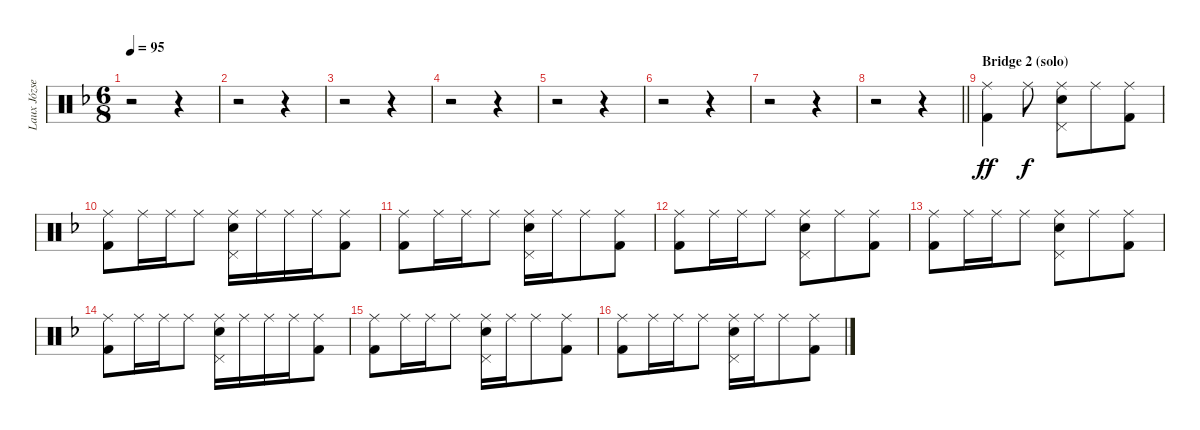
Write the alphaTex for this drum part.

\track ("Laux József" "Laux Józse") {instrument percussion}
\staff {score}
\articulation defaults
\ts (6 8)
\tempo 95
\clef neutral
\ks dminor
r.2{dy f} r.4 |
r.2 r.4 |
r.2 r.4 |
r.2 r.4 |
r.2 r.4 |
r.2 r.4 |
r.2 r.4 |
\barLineRight lightlight
r.2 r.4 |
\section ("" "Bridge 2 (solo)")
("Ride (middle)" "Kick (hit) 2").4{dy ff} "Ride (middle)".8{dy f} ("Pedal Hi-Hat (hit)" "Ride (middle)" "Electric Snare (hit)").8 "Ride (middle)".8 ("Ride (middle)" "Kick (hit) 2").8 |
("Ride (middle)" "Kick (hit) 2").8 "Ride (middle)".16 "Ride (middle)".16 "Ride (middle)".8 ("Pedal Hi-Hat (hit)" "Ride (middle)" "Electric Snare (hit)").16 "Ride (middle)".16 "Ride (middle)".16 "Ride (middle)".16 ("Ride (middle)" "Kick (hit) 2").8 |
("Ride (middle)" "Kick (hit) 2").8 "Ride (middle)".16 "Ride (middle)".16 "Ride (middle)".8 ("Pedal Hi-Hat (hit)" "Ride (middle)" "Electric Snare (hit)").16 "Ride (middle)".16 "Ride (middle)".8 ("Ride (middle)" "Kick (hit) 2").8 |
("Ride (middle)" "Kick (hit) 2").8 "Ride (middle)".16 "Ride (middle)".16 "Ride (middle)".8 ("Pedal Hi-Hat (hit)" "Ride (middle)" "Electric Snare (hit)").8 "Ride (middle)".8 ("Ride (middle)" "Kick (hit) 2").8 |
("Ride (middle)" "Kick (hit) 2").8 "Ride (middle)".16 "Ride (middle)".16 "Ride (middle)".8 ("Pedal Hi-Hat (hit)" "Ride (middle)" "Electric Snare (hit)").8 "Ride (middle)".8 ("Ride (middle)" "Kick (hit) 2").8 |
("Ride (middle)" "Kick (hit) 2").8 "Ride (middle)".16 "Ride (middle)".16 "Ride (middle)".8 ("Pedal Hi-Hat (hit)" "Ride (middle)" "Electric Snare (hit)").16 "Ride (middle)".16 "Ride (middle)".16 "Ride (middle)".16 ("Ride (middle)" "Kick (hit) 2").8 |
("Ride (middle)" "Kick (hit) 2").8 "Ride (middle)".16 "Ride (middle)".16 "Ride (middle)".8 ("Pedal Hi-Hat (hit)" "Ride (middle)" "Electric Snare (hit)").16 "Ride (middle)".16 "Ride (middle)".8 ("Ride (middle)" "Kick (hit) 2").8 |
("Ride (middle)" "Kick (hit) 2").8 "Ride (middle)".16 "Ride (middle)".16 "Ride (middle)".8 ("Pedal Hi-Hat (hit)" "Ride (middle)" "Electric Snare (hit)").16 "Ride (middle)".16 "Ride (middle)".8 ("Ride (middle)" "Kick (hit) 2").8
